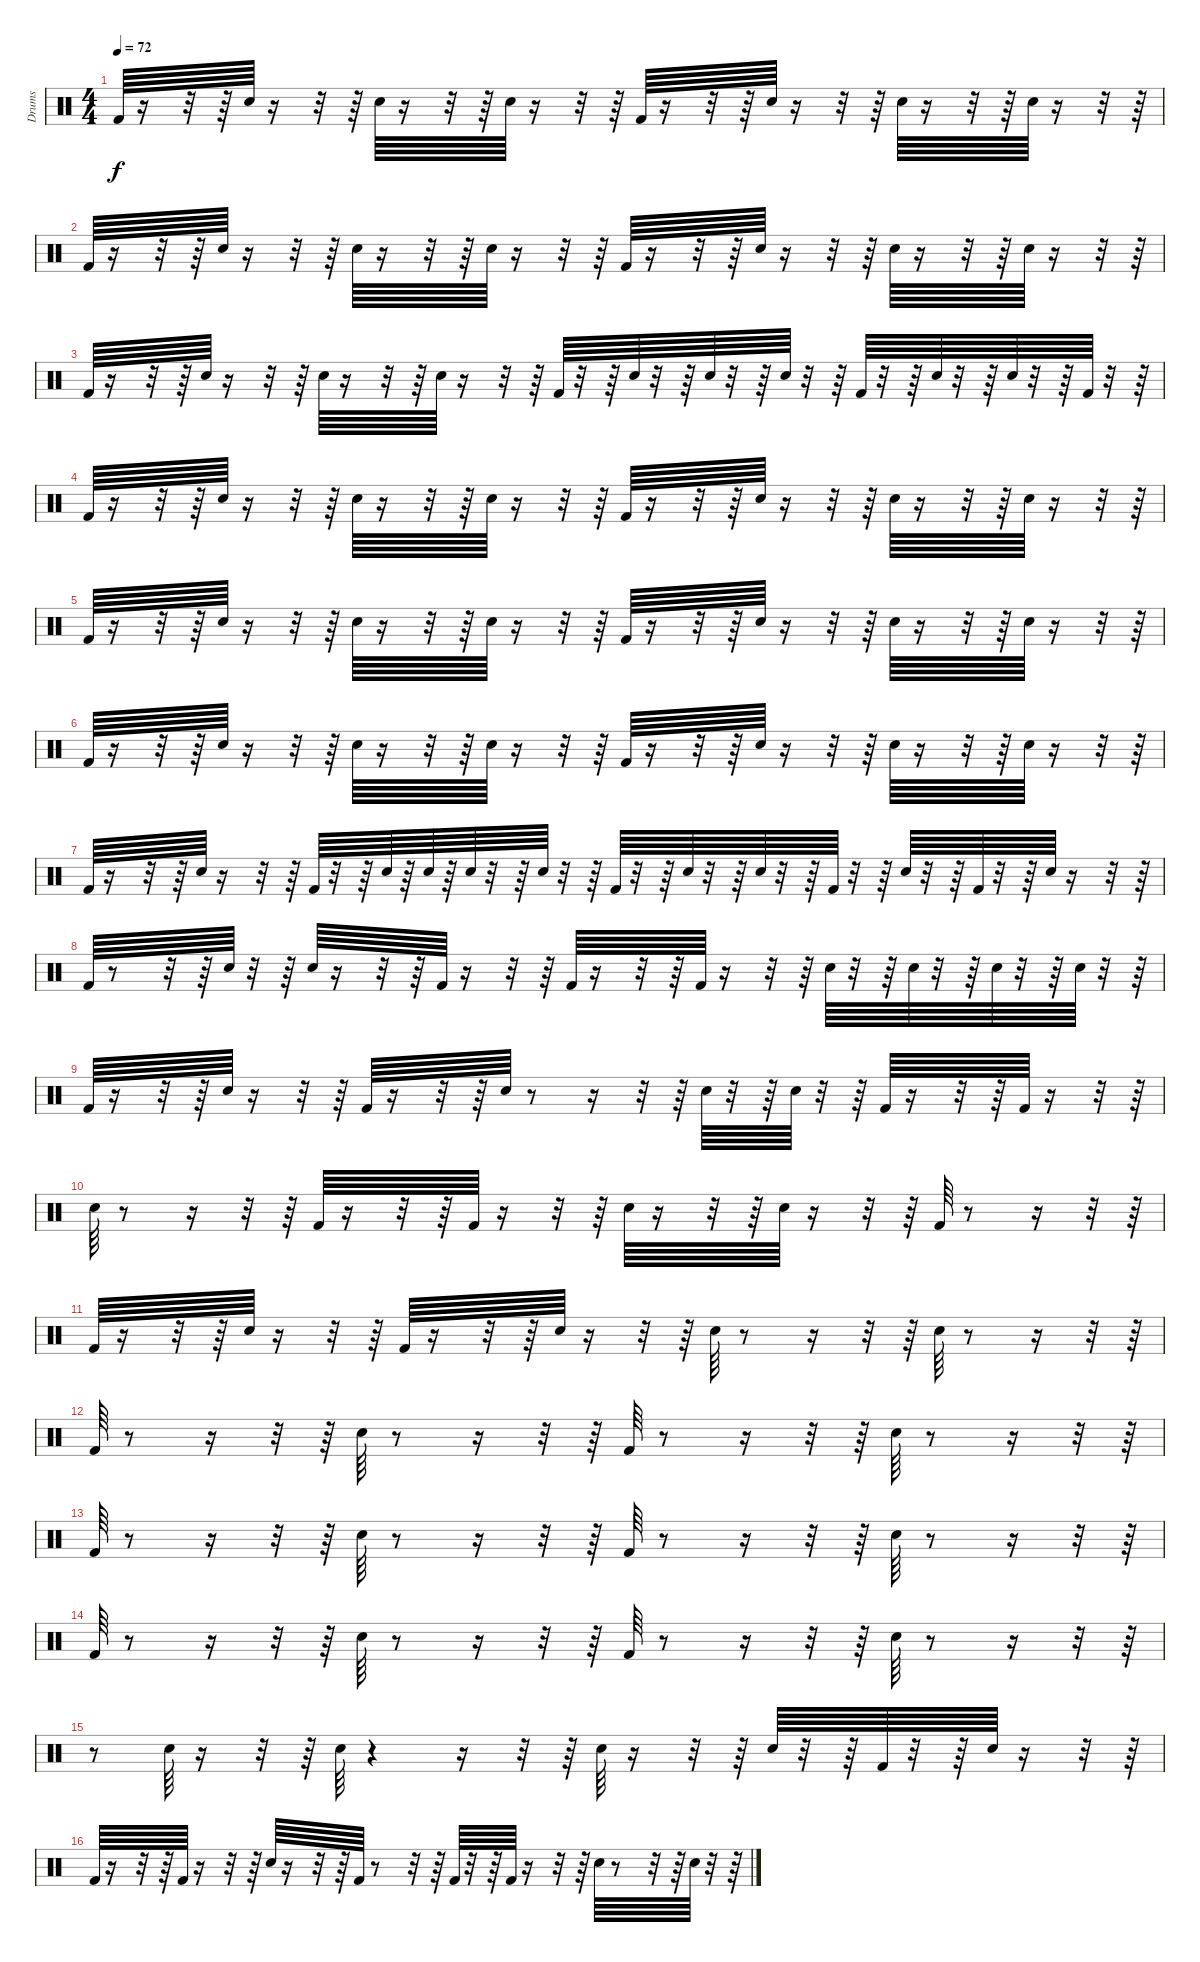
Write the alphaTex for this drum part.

\track ("Drums" "Drums") {instrument percussion}
\staff {score}
\articulation defaults
\ts (4 4)
\tempo 72
\clef neutral
\ks c "Kick (hit) 2".64{dy f}
r.16 r.32 r.64 "Snare (hit) 2".64 r.16 r.32 r.64 "Snare (hit) 2".64 r.16 r.32 r.64 "Snare (hit) 2".64 r.16 r.32 r.64 "Kick (hit) 2".64 r.16 r.32 r.64 "Snare (hit) 2".64 r.16 r.32 r.64 "Snare (hit) 2".64 r.16 r.32 r.64 "Snare (hit) 2".64 r.16 r.32 r.64 |
"Kick (hit) 2".64 r.16 r.32 r.64 "Snare (hit) 2".64 r.16 r.32 r.64 "Snare (hit) 2".64 r.16 r.32 r.64 "Snare (hit) 2".64 r.16 r.32 r.64 "Kick (hit) 2".64 r.16 r.32 r.64 "Snare (hit) 2".64 r.16 r.32 r.64 "Snare (hit) 2".64 r.16 r.32 r.64 "Snare (hit) 2".64 r.16 r.32 r.64 |
"Kick (hit) 2".64 r.16 r.32 r.64 "Snare (hit) 2".64 r.16 r.32 r.64 "Snare (hit) 2".64 r.16 r.32 r.64 "Snare (hit) 2".64 r.16 r.32 r.64 "Kick (hit) 2".64 r.32 r.64 "Snare (hit) 2".64 r.32 r.64 "Snare (hit) 2".64 r.32 r.64 "Snare (hit) 2".64 r.32 r.64 "Kick (hit) 2".64 r.32 r.64 "Snare (hit) 2".64 r.32 r.64 "Snare (hit) 2".64 r.32 r.64 "Kick (hit) 2".64 r.32 r.64 |
"Kick (hit) 2".64 r.16 r.32 r.64 "Snare (hit) 2".64 r.16 r.32 r.64 "Snare (hit) 2".64 r.16 r.32 r.64 "Snare (hit) 2".64 r.16 r.32 r.64 "Kick (hit) 2".64 r.16 r.32 r.64 "Snare (hit) 2".64 r.16 r.32 r.64 "Snare (hit) 2".64 r.16 r.32 r.64 "Snare (hit) 2".64 r.16 r.32 r.64 |
"Kick (hit) 2".64 r.16 r.32 r.64 "Snare (hit) 2".64 r.16 r.32 r.64 "Snare (hit) 2".64 r.16 r.32 r.64 "Snare (hit) 2".64 r.16 r.32 r.64 "Kick (hit) 2".64 r.16 r.32 r.64 "Snare (hit) 2".64 r.16 r.32 r.64 "Snare (hit) 2".64 r.16 r.32 r.64 "Snare (hit) 2".64 r.16 r.32 r.64 |
"Kick (hit) 2".64 r.16 r.32 r.64 "Snare (hit) 2".64 r.16 r.32 r.64 "Snare (hit) 2".64 r.16 r.32 r.64 "Snare (hit) 2".64 r.16 r.32 r.64 "Kick (hit) 2".64 r.16 r.32 r.64 "Snare (hit) 2".64 r.16 r.32 r.64 "Snare (hit) 2".64 r.16 r.32 r.64 "Snare (hit) 2".64 r.16 r.32 r.64 |
"Kick (hit) 2".64 r.16 r.32 r.64 "Snare (hit) 2".64 r.16 r.32 r.64 "Kick (hit) 2".64 r.32 r.64 "Snare (hit) 2".64 r.64 "Snare (hit) 2".64 r.64 "Snare (hit) 2".64 r.32 r.64 "Snare (hit) 2".64 r.32 r.64 "Kick (hit) 2".64 r.32 r.64 "Snare (hit) 2".64 r.32 r.64 "Snare (hit) 2".64 r.32 r.64 "Kick (hit) 2".64 r.32 r.64 "Snare (hit) 2".64 r.32 r.64 "Kick (hit) 2".64 r.32 r.64 "Snare (hit) 2".64 r.16 r.32 r.64 |
"Kick (hit) 2".64 r.8 r.32 r.64 "Snare (hit) 2".64 r.32 r.64 "Snare (hit) 2".64 r.16 r.32 r.64 "Kick (hit) 2".64 r.16 r.32 r.64 "Kick (hit) 2".64 r.16 r.32 r.64 "Kick (hit) 2".64 r.16 r.32 r.64 "Snare (hit) 2".64 r.32 r.64 "Snare (hit) 2".64 r.32 r.64 "Snare (hit) 2".64 r.32 r.64 "Snare (hit) 2".64 r.32 r.64 |
"Kick (hit) 2".64 r.16 r.32 r.64 "Snare (hit) 2".64 r.16 r.32 r.64 "Kick (hit) 2".64 r.16 r.32 r.64 "Snare (hit) 2".64 r.8 r.16 r.32 r.64 "Snare (hit) 2".64 r.32 r.64 "Snare (hit) 2".64 r.32 r.64 "Kick (hit) 2".64 r.16 r.32 r.64 "Kick (hit) 2".64 r.16 r.32 r.64 |
"Snare (hit) 2".64 r.8 r.16 r.32 r.64 "Kick (hit) 2".64 r.16 r.32 r.64 "Kick (hit) 2".64 r.16 r.32 r.64 "Snare (hit) 2".64 r.16 r.32 r.64 "Snare (hit) 2".64 r.16 r.32 r.64 "Kick (hit) 2".64 r.8 r.16 r.32 r.64 |
"Kick (hit) 2".64 r.16 r.32 r.64 "Snare (hit) 2".64 r.16 r.32 r.64 "Kick (hit) 2".64 r.16 r.32 r.64 "Snare (hit) 2".64 r.16 r.32 r.64 "Snare (hit) 2".64 r.8 r.16 r.32 r.64 "Snare (hit) 2".64 r.8 r.16 r.32 r.64 |
"Kick (hit) 2".64 r.8 r.16 r.32 r.64 "Snare (hit) 2".64 r.8 r.16 r.32 r.64 "Kick (hit) 2".64 r.8 r.16 r.32 r.64 "Snare (hit) 2".64 r.8 r.16 r.32 r.64 |
"Kick (hit) 2".64 r.8 r.16 r.32 r.64 "Snare (hit) 2".64 r.8 r.16 r.32 r.64 "Kick (hit) 2".64 r.8 r.16 r.32 r.64 "Snare (hit) 2".64 r.8 r.16 r.32 r.64 |
"Kick (hit) 2".64 r.8 r.16 r.32 r.64 "Snare (hit) 2".64 r.8 r.16 r.32 r.64 "Kick (hit) 2".64 r.8 r.16 r.32 r.64 "Snare (hit) 2".64 r.8 r.16 r.32 r.64 |
r.8 "Snare (hit) 2".64 r.16 r.32 r.64 "Snare (hit) 2".64 r.4 r.16 r.32 r.64 "Snare (hit) 2".64 r.16 r.32 r.64 "Snare (hit) 2".64 r.32 r.64 "Kick (hit) 2".64 r.32 r.64 "Snare (hit) 2".64 r.16 r.32 r.64 |
"Kick (hit) 2".64 r.16 r.32 r.64 "Kick (hit) 2".64 r.16 r.32 r.64 "Snare (hit) 2".64 r.16 r.32 r.64 "Kick (hit) 2".64 r.8 r.32 r.64 "Kick (hit) 2".64 r.32 r.64 "Kick (hit) 2".64 r.16 r.32 r.64 "Snare (hit) 2".64 r.8 r.32 r.64 "Snare (hit) 2".64 r.32 r.64
